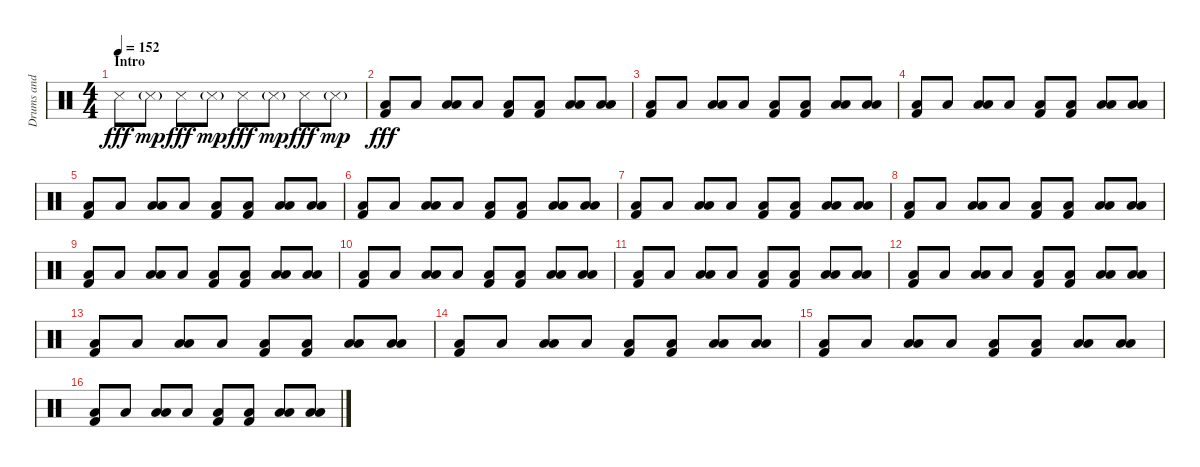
\track ("Drums and Percussion" "Drums and ") {instrument percussion}
\staff {score}
\articulation defaults
\ts (4 4)
\section ("" "Intro")
\tempo 152
\clef neutral
\ks c "Snare (side stick) 3".8{dy fff} "Snare (side stick) 3"{g}.8{dy mp} "Snare (side stick) 3".8{dy fff} "Snare (side stick) 3"{g}.8{dy mp} "Snare (side stick) 3".8{dy fff} "Snare (side stick) 3"{g}.8{dy mp} "Snare (side stick) 3".8{dy fff} "Snare (side stick) 3"{g}.8{dy mp}
|
("Low Floor Tom (hit)" "Kick (hit) 2").8{dy fff} "Low Floor Tom (hit)".8 ("Low Tom (hit)" "Low Floor Tom (hit)").8 "Low Floor Tom (hit)".8 ("Low Floor Tom (hit)" "Kick (hit) 2").8 ("Low Floor Tom (hit)" "Kick (hit) 2").8 ("Low Tom (hit)" "Low Floor Tom (hit)").8 ("Low Tom (hit)" "Low Floor Tom (hit)").8 |
("Low Floor Tom (hit)" "Kick (hit) 2").8 "Low Floor Tom (hit)".8 ("Low Tom (hit)" "Low Floor Tom (hit)").8 "Low Floor Tom (hit)".8 ("Low Floor Tom (hit)" "Kick (hit) 2").8 ("Low Floor Tom (hit)" "Kick (hit) 2").8 ("Low Tom (hit)" "Low Floor Tom (hit)").8 ("Low Tom (hit)" "Low Floor Tom (hit)").8 |
("Low Floor Tom (hit)" "Kick (hit) 2").8 "Low Floor Tom (hit)".8 ("Low Tom (hit)" "Low Floor Tom (hit)").8 "Low Floor Tom (hit)".8 ("Low Floor Tom (hit)" "Kick (hit) 2").8 ("Low Floor Tom (hit)" "Kick (hit) 2").8 ("Low Tom (hit)" "Low Floor Tom (hit)").8 ("Low Tom (hit)" "Low Floor Tom (hit)").8 |
("Low Floor Tom (hit)" "Kick (hit) 2").8 "Low Floor Tom (hit)".8 ("Low Tom (hit)" "Low Floor Tom (hit)").8 "Low Floor Tom (hit)".8 ("Low Floor Tom (hit)" "Kick (hit) 2").8 ("Low Floor Tom (hit)" "Kick (hit) 2").8 ("Low Tom (hit)" "Low Floor Tom (hit)").8 ("Low Tom (hit)" "Low Floor Tom (hit)").8 |
("Low Floor Tom (hit)" "Kick (hit) 2").8 "Low Floor Tom (hit)".8 ("Low Tom (hit)" "Low Floor Tom (hit)").8 "Low Floor Tom (hit)".8 ("Low Floor Tom (hit)" "Kick (hit) 2").8 ("Low Floor Tom (hit)" "Kick (hit) 2").8 ("Low Tom (hit)" "Low Floor Tom (hit)").8 ("Low Tom (hit)" "Low Floor Tom (hit)").8 |
("Low Floor Tom (hit)" "Kick (hit) 2").8 "Low Floor Tom (hit)".8 ("Low Tom (hit)" "Low Floor Tom (hit)").8 "Low Floor Tom (hit)".8 ("Low Floor Tom (hit)" "Kick (hit) 2").8 ("Low Floor Tom (hit)" "Kick (hit) 2").8 ("Low Tom (hit)" "Low Floor Tom (hit)").8 ("Low Tom (hit)" "Low Floor Tom (hit)").8 |
("Low Floor Tom (hit)" "Kick (hit) 2").8 "Low Floor Tom (hit)".8 ("Low Tom (hit)" "Low Floor Tom (hit)").8 "Low Floor Tom (hit)".8 ("Low Floor Tom (hit)" "Kick (hit) 2").8 ("Low Floor Tom (hit)" "Kick (hit) 2").8 ("Low Tom (hit)" "Low Floor Tom (hit)").8 ("Low Tom (hit)" "Low Floor Tom (hit)").8 |
("Low Floor Tom (hit)" "Kick (hit) 2").8 "Low Floor Tom (hit)".8 ("Low Tom (hit)" "Low Floor Tom (hit)").8 "Low Floor Tom (hit)".8 ("Low Floor Tom (hit)" "Kick (hit) 2").8 ("Low Floor Tom (hit)" "Kick (hit) 2").8 ("Low Tom (hit)" "Low Floor Tom (hit)").8 ("Low Tom (hit)" "Low Floor Tom (hit)").8 |
("Low Floor Tom (hit)" "Kick (hit) 2").8 "Low Floor Tom (hit)".8 ("Low Tom (hit)" "Low Floor Tom (hit)").8 "Low Floor Tom (hit)".8 ("Low Floor Tom (hit)" "Kick (hit) 2").8 ("Low Floor Tom (hit)" "Kick (hit) 2").8 ("Low Tom (hit)" "Low Floor Tom (hit)").8 ("Low Tom (hit)" "Low Floor Tom (hit)").8 |
("Low Floor Tom (hit)" "Kick (hit) 2").8 "Low Floor Tom (hit)".8 ("Low Tom (hit)" "Low Floor Tom (hit)").8 "Low Floor Tom (hit)".8 ("Low Floor Tom (hit)" "Kick (hit) 2").8 ("Low Floor Tom (hit)" "Kick (hit) 2").8 ("Low Tom (hit)" "Low Floor Tom (hit)").8 ("Low Tom (hit)" "Low Floor Tom (hit)").8 |
("Low Floor Tom (hit)" "Kick (hit) 2").8 "Low Floor Tom (hit)".8 ("Low Tom (hit)" "Low Floor Tom (hit)").8 "Low Floor Tom (hit)".8 ("Low Floor Tom (hit)" "Kick (hit) 2").8 ("Low Floor Tom (hit)" "Kick (hit) 2").8 ("Low Tom (hit)" "Low Floor Tom (hit)").8 ("Low Tom (hit)" "Low Floor Tom (hit)").8 |
("Low Floor Tom (hit)" "Kick (hit) 2").8 "Low Floor Tom (hit)".8 ("Low Tom (hit)" "Low Floor Tom (hit)").8 "Low Floor Tom (hit)".8 ("Low Floor Tom (hit)" "Kick (hit) 2").8 ("Low Floor Tom (hit)" "Kick (hit) 2").8 ("Low Tom (hit)" "Low Floor Tom (hit)").8 ("Low Tom (hit)" "Low Floor Tom (hit)").8 |
("Low Floor Tom (hit)" "Kick (hit) 2").8 "Low Floor Tom (hit)".8 ("Low Tom (hit)" "Low Floor Tom (hit)").8 "Low Floor Tom (hit)".8 ("Low Floor Tom (hit)" "Kick (hit) 2").8 ("Low Floor Tom (hit)" "Kick (hit) 2").8 ("Low Tom (hit)" "Low Floor Tom (hit)").8 ("Low Tom (hit)" "Low Floor Tom (hit)").8 |
("Low Floor Tom (hit)" "Kick (hit) 2").8 "Low Floor Tom (hit)".8 ("Low Tom (hit)" "Low Floor Tom (hit)").8 "Low Floor Tom (hit)".8 ("Low Floor Tom (hit)" "Kick (hit) 2").8 ("Low Floor Tom (hit)" "Kick (hit) 2").8 ("Low Tom (hit)" "Low Floor Tom (hit)").8 ("Low Tom (hit)" "Low Floor Tom (hit)").8 |
("Low Floor Tom (hit)" "Kick (hit) 2").8 "Low Floor Tom (hit)".8 ("Low Tom (hit)" "Low Floor Tom (hit)").8 "Low Floor Tom (hit)".8 ("Low Floor Tom (hit)" "Kick (hit) 2").8 ("Low Floor Tom (hit)" "Kick (hit) 2").8 ("Low Tom (hit)" "Low Floor Tom (hit)").8 ("Low Tom (hit)" "Low Floor Tom (hit)").8
